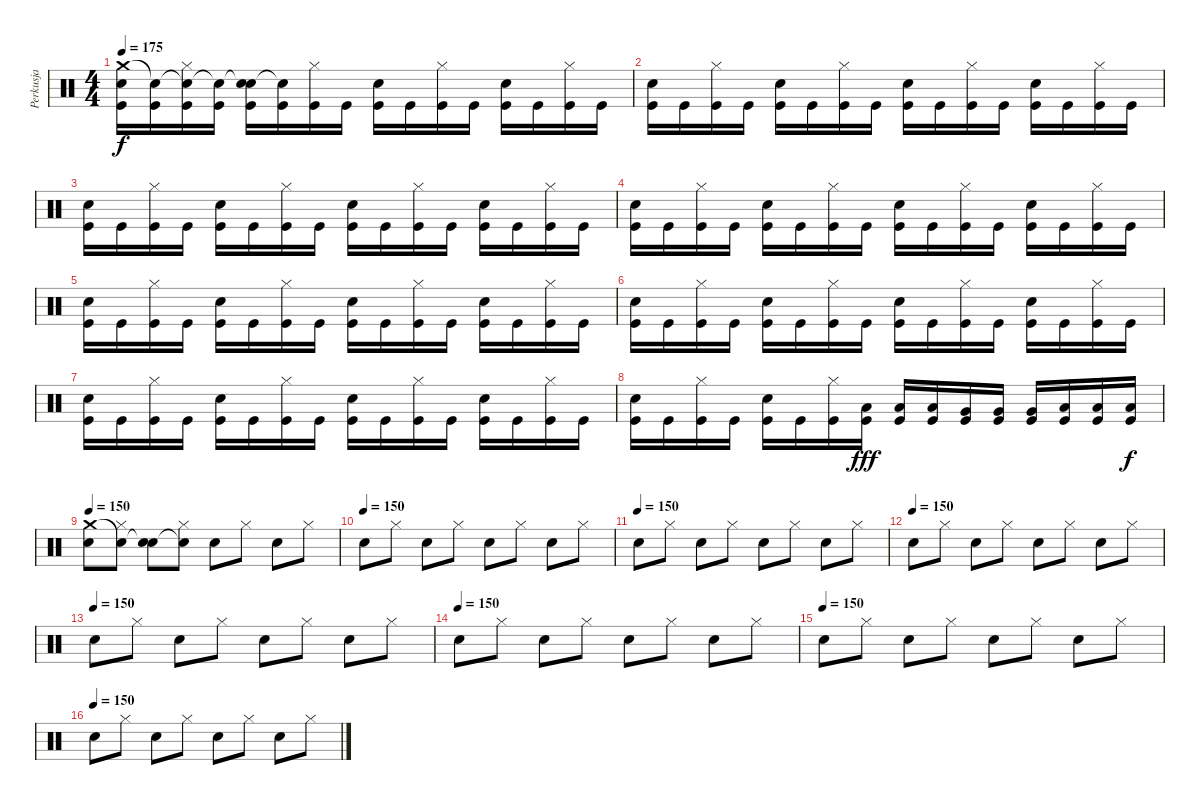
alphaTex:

\track ("Perkusja" "Perkusja") {instrument percussion}
\staff {score}
\articulation defaults
\ts (4 4)
\tempo 175
\clef neutral
\ks c
("Crash medium (hit)"{t} "Snare (hit) 2" "Kick (hit)").16{dy f} ("Snare (hit)"{t} "Kick (hit)").16 ("Snare (hit)"{t} "Hi-Hat (closed)" "Kick (hit)").16 ("Snare (hit)"{t} "Kick (hit)").16 ("Snare (hit)"{t} "Snare (hit) 2" "Kick (hit)").16 ("Snare (hit)"{t} "Kick (hit)").16 ("Hi-Hat (closed)" "Kick (hit)").16 "Kick (hit)".16 ("Snare (hit) 2" "Kick (hit)").16 "Kick (hit)".16 ("Hi-Hat (closed)" "Kick (hit)").16 "Kick (hit)".16 ("Snare (hit) 2" "Kick (hit)").16 "Kick (hit)".16 ("Hi-Hat (closed)" "Kick (hit)").16 "Kick (hit)".16 |
("Snare (hit) 2" "Kick (hit)").16 "Kick (hit)".16 ("Hi-Hat (closed)" "Kick (hit)").16 "Kick (hit)".16 ("Snare (hit) 2" "Kick (hit)").16 "Kick (hit)".16 ("Hi-Hat (closed)" "Kick (hit)").16 "Kick (hit)".16 ("Snare (hit) 2" "Kick (hit)").16 "Kick (hit)".16 ("Hi-Hat (closed)" "Kick (hit)").16 "Kick (hit)".16 ("Snare (hit) 2" "Kick (hit)").16 "Kick (hit)".16 ("Hi-Hat (closed)" "Kick (hit)").16 "Kick (hit)".16 |
("Snare (hit) 2" "Kick (hit)").16 "Kick (hit)".16 ("Hi-Hat (closed)" "Kick (hit)").16 "Kick (hit)".16 ("Snare (hit) 2" "Kick (hit)").16 "Kick (hit)".16 ("Hi-Hat (closed)" "Kick (hit)").16 "Kick (hit)".16 ("Snare (hit) 2" "Kick (hit)").16 "Kick (hit)".16 ("Hi-Hat (closed)" "Kick (hit)").16 "Kick (hit)".16 ("Snare (hit) 2" "Kick (hit)").16 "Kick (hit)".16 ("Hi-Hat (closed)" "Kick (hit)").16 "Kick (hit)".16 |
("Snare (hit) 2" "Kick (hit)").16 "Kick (hit)".16 ("Hi-Hat (closed)" "Kick (hit)").16 "Kick (hit)".16 ("Snare (hit) 2" "Kick (hit)").16 "Kick (hit)".16 ("Hi-Hat (closed)" "Kick (hit)").16 "Kick (hit)".16 ("Snare (hit) 2" "Kick (hit)").16 "Kick (hit)".16 ("Hi-Hat (closed)" "Kick (hit)").16 "Kick (hit)".16 ("Snare (hit) 2" "Kick (hit)").16 "Kick (hit)".16 ("Hi-Hat (closed)" "Kick (hit)").16 "Kick (hit)".16 |
("Snare (hit) 2" "Kick (hit)").16 "Kick (hit)".16 ("Hi-Hat (closed)" "Kick (hit)").16 "Kick (hit)".16 ("Snare (hit) 2" "Kick (hit)").16 "Kick (hit)".16 ("Hi-Hat (closed)" "Kick (hit)").16 "Kick (hit)".16 ("Snare (hit) 2" "Kick (hit)").16 "Kick (hit)".16 ("Hi-Hat (closed)" "Kick (hit)").16 "Kick (hit)".16 ("Snare (hit) 2" "Kick (hit)").16 "Kick (hit)".16 ("Hi-Hat (closed)" "Kick (hit)").16 "Kick (hit)".16 |
("Snare (hit) 2" "Kick (hit)").16 "Kick (hit)".16 ("Hi-Hat (closed)" "Kick (hit)").16 "Kick (hit)".16 ("Snare (hit) 2" "Kick (hit)").16 "Kick (hit)".16 ("Hi-Hat (closed)" "Kick (hit)").16 "Kick (hit)".16 ("Snare (hit) 2" "Kick (hit)").16 "Kick (hit)".16 ("Hi-Hat (closed)" "Kick (hit)").16 "Kick (hit)".16 ("Snare (hit) 2" "Kick (hit)").16 "Kick (hit)".16 ("Hi-Hat (closed)" "Kick (hit)").16 "Kick (hit)".16 |
("Snare (hit) 2" "Kick (hit)").16 "Kick (hit)".16 ("Hi-Hat (closed)" "Kick (hit)").16 "Kick (hit)".16 ("Snare (hit) 2" "Kick (hit)").16 "Kick (hit)".16 ("Hi-Hat (closed)" "Kick (hit)").16 "Kick (hit)".16 ("Snare (hit) 2" "Kick (hit)").16 "Kick (hit)".16 ("Hi-Hat (closed)" "Kick (hit)").16 "Kick (hit)".16 ("Snare (hit) 2" "Kick (hit)").16 "Kick (hit)".16 ("Hi-Hat (closed)" "Kick (hit)").16 "Kick (hit)".16 |
("Snare (hit) 2" "Kick (hit)").16 "Kick (hit)".16 ("Hi-Hat (closed)" "Kick (hit)").16 "Kick (hit)".16 ("Snare (hit) 2" "Kick (hit)").16 "Kick (hit)".16 ("Hi-Hat (closed)" "Kick (hit)").16 ("Low Tom (hit)" "Kick (hit)").16{dy fff} ("Low Tom (hit)" "Kick (hit)").16 ("Low Tom (hit)" "Kick (hit)").16 ("Very Low Tom (hit)" "Kick (hit)").16 ("Very Low Tom (hit)" "Kick (hit)").16 ("Very Low Tom (hit)" "Kick (hit)").16 ("Low Floor Tom (hit)" "Kick (hit)").16 ("Low Floor Tom (hit)" "Kick (hit)").16 ("Low Floor Tom (hit)" "Kick (hit)").16{dy f} |
\tempo 150
("Snare (hit) 2" "Crash medium (hit)").8 ("Hi-Hat (closed)" "Snare (hit)"{t}).8 ("Snare (hit) 2" "Snare (hit)"{t}).8 ("Hi-Hat (closed)" "Snare (hit)"{t}).8 "Snare (hit) 2".8 "Hi-Hat (closed)".8 "Snare (hit) 2".8 "Hi-Hat (closed)".8 |
\tempo (150)
"Snare (hit) 2".8 "Hi-Hat (closed)".8 "Snare (hit) 2".8 "Hi-Hat (closed)".8 "Snare (hit) 2".8 "Hi-Hat (closed)".8 "Snare (hit) 2".8 "Hi-Hat (closed)".8 |
\tempo (150)
"Snare (hit) 2".8 "Hi-Hat (closed)".8 "Snare (hit) 2".8 "Hi-Hat (closed)".8 "Snare (hit) 2".8 "Hi-Hat (closed)".8 "Snare (hit) 2".8 "Hi-Hat (closed)".8 |
\tempo (150)
"Snare (hit) 2".8 "Hi-Hat (closed)".8 "Snare (hit) 2".8 "Hi-Hat (closed)".8 "Snare (hit) 2".8 "Hi-Hat (closed)".8 "Snare (hit) 2".8 "Hi-Hat (closed)".8 |
\tempo (150)
"Snare (hit) 2".8 "Hi-Hat (closed)".8 "Snare (hit) 2".8 "Hi-Hat (closed)".8 "Snare (hit) 2".8 "Hi-Hat (closed)".8 "Snare (hit) 2".8 "Hi-Hat (closed)".8 |
\tempo (150)
"Snare (hit) 2".8 "Hi-Hat (closed)".8 "Snare (hit) 2".8 "Hi-Hat (closed)".8 "Snare (hit) 2".8 "Hi-Hat (closed)".8 "Snare (hit) 2".8 "Hi-Hat (closed)".8 |
\tempo (150)
"Snare (hit) 2".8 "Hi-Hat (closed)".8 "Snare (hit) 2".8 "Hi-Hat (closed)".8 "Snare (hit) 2".8 "Hi-Hat (closed)".8 "Snare (hit) 2".8 "Hi-Hat (closed)".8 |
\tempo (150)
"Snare (hit) 2".8 "Hi-Hat (closed)".8 "Snare (hit) 2".8 "Hi-Hat (closed)".8 "Snare (hit) 2".8 "Hi-Hat (closed)".8 "Snare (hit) 2".8 "Hi-Hat (closed)".8
